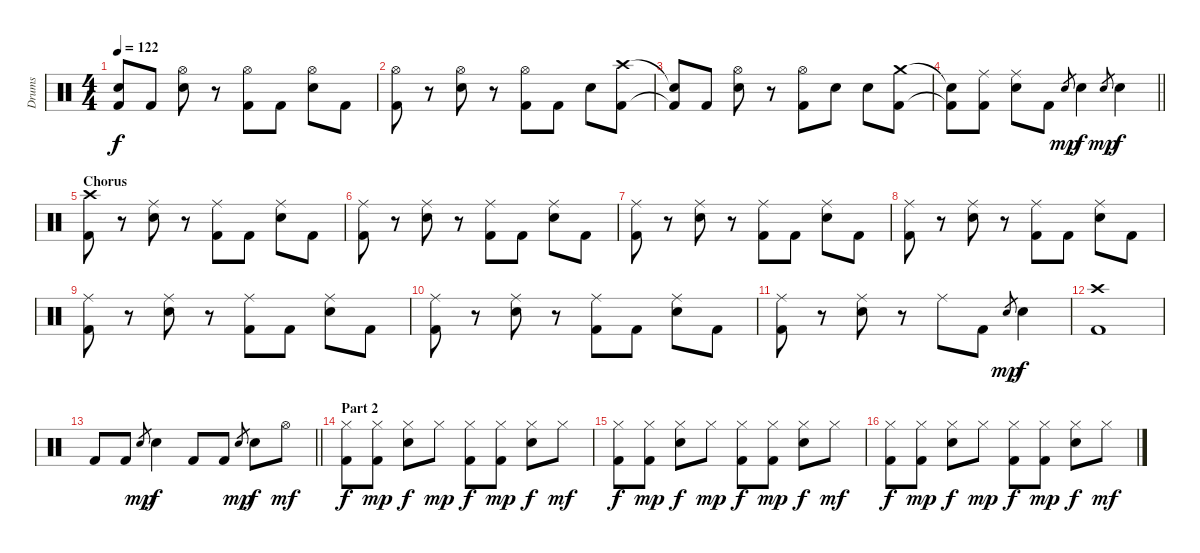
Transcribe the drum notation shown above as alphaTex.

\track ("Drums" "Drums") {instrument percussion}
\staff {score}
\articulation defaults
\ts (4 4)
\tempo 122
\clef neutral
\ks c
("Kick (hit) 2"{t} "Snare (hit)"{t}).8{dy f} "Kick (hit) 2".8 ("Snare (hit) 2" "Hi-Hat (open)").8 r.8 ("Kick (hit) 2" "Hi-Hat (open)").8 "Kick (hit) 2".8 ("Snare (hit) 2" "Hi-Hat (open)").8 "Kick (hit) 2".8 |
("Kick (hit) 2" "Hi-Hat (open)").8 r.8 ("Snare (hit) 2" "Hi-Hat (open)").8 r.8 ("Kick (hit) 2" "Hi-Hat (open)").8 "Kick (hit) 2".8 "Snare (hit) 2".8 ("Kick (hit) 2" "Crash high (hit)").8 |
("Kick (hit) 2"{t} "Snare (hit)"{t}).8 "Kick (hit) 2".8 ("Snare (hit) 2" "Hi-Hat (open)").8 r.8 ("Kick (hit) 2" "Hi-Hat (open)").8 "Snare (hit) 2".8 "Snare (hit) 2".8 ("Kick (hit) 2" "Crash medium (hit)").8 |
\barLineRight lightlight
("Kick (hit) 2"{t} "Snare (hit)"{t}).8 ("Kick (hit) 2" "Ride (middle)").8 ("Snare (hit) 2" "Ride (middle)").8 "Kick (hit) 2".8 "Snare (hit) 2".8{gr dy mp} "Snare (hit) 2".4{dy f} "Snare (hit) 2".8{gr dy mp} "Snare (hit) 2".4{dy f} |
\section ("" "Chorus")
("Kick (hit) 2" "Crash high (hit)").8 r.8 ("Snare (hit) 2" "Ride (middle)").8 r.8 ("Kick (hit) 2" "Ride (middle)").8 "Kick (hit) 2".8 ("Snare (hit) 2" "Ride (middle)").8 "Kick (hit) 2".8 |
("Kick (hit) 2" "Ride (middle)").8 r.8 ("Snare (hit) 2" "Ride (middle)").8 r.8 ("Kick (hit) 2" "Ride (middle)").8 "Kick (hit) 2".8 ("Snare (hit) 2" "Ride (middle)").8 "Kick (hit) 2".8 |
("Kick (hit) 2" "Ride (middle)").8 r.8 ("Snare (hit) 2" "Ride (middle)").8 r.8 ("Kick (hit) 2" "Ride (middle)").8 "Kick (hit) 2".8 ("Snare (hit) 2" "Ride (middle)").8 "Kick (hit) 2".8 |
("Kick (hit) 2" "Ride (middle)").8 r.8 ("Snare (hit) 2" "Ride (middle)").8 r.8 ("Kick (hit) 2" "Ride (middle)").8 "Kick (hit) 2".8 ("Snare (hit) 2" "Ride (middle)").8 "Kick (hit) 2".8 |
("Kick (hit) 2" "Ride (middle)").8 r.8 ("Snare (hit) 2" "Ride (middle)").8 r.8 ("Kick (hit) 2" "Ride (middle)").8 "Kick (hit) 2".8 ("Snare (hit) 2" "Ride (middle)").8 "Kick (hit) 2".8 |
("Kick (hit) 2" "Ride (middle)").8 r.8 ("Snare (hit) 2" "Ride (middle)").8 r.8 ("Kick (hit) 2" "Ride (middle)").8 "Kick (hit) 2".8 ("Snare (hit) 2" "Ride (middle)").8 "Kick (hit) 2".8 |
("Kick (hit) 2" "Ride (middle)").8 r.8 ("Snare (hit) 2" "Ride (middle)").8 r.8 "Ride (middle)".8 "Kick (hit) 2".8 "Snare (hit) 2".8{gr dy mp} "Snare (hit) 2".4{dy f} |
("Kick (hit) 2" "Crash high (hit)").1 |
\barLineRight lightlight "Kick (hit) 2".8 "Kick (hit) 2".8 "Snare (hit) 2".8{gr dy mp} "Snare (hit) 2".4{dy f} "Kick (hit) 2".8 "Kick (hit) 2".8 "Snare (hit) 2".8{gr dy mp} "Snare (hit) 2".8{dy f} "Hi-Hat (open)".8{dy mf}
|
\section ("" "Part 2")
("Kick (hit) 2" "Hi-Hat (closed)").8{dy f} ("Kick (hit) 2" "Hi-Hat (closed)").8{dy mp} ("Snare (hit) 2" "Hi-Hat (closed)").8{dy f} "Hi-Hat (closed)".8{dy mp} ("Kick (hit) 2" "Hi-Hat (closed)").8{dy f} ("Kick (hit) 2" "Hi-Hat (closed)").8{dy mp} ("Snare (hit) 2" "Hi-Hat (closed)").8{dy f} "Hi-Hat (closed)".8{dy mf} |
("Kick (hit) 2" "Hi-Hat (closed)").8{dy f} ("Kick (hit) 2" "Hi-Hat (closed)").8{dy mp} ("Snare (hit) 2" "Hi-Hat (closed)").8{dy f} "Hi-Hat (closed)".8{dy mp} ("Kick (hit) 2" "Hi-Hat (closed)").8{dy f} ("Kick (hit) 2" "Hi-Hat (closed)").8{dy mp} ("Snare (hit) 2" "Hi-Hat (closed)").8{dy f} "Hi-Hat (closed)".8{dy mf} |
("Kick (hit) 2" "Hi-Hat (closed)").8{dy f} ("Kick (hit) 2" "Hi-Hat (closed)").8{dy mp} ("Snare (hit) 2" "Hi-Hat (closed)").8{dy f} "Hi-Hat (closed)".8{dy mp} ("Kick (hit) 2" "Hi-Hat (closed)").8{dy f} ("Kick (hit) 2" "Hi-Hat (closed)").8{dy mp} ("Snare (hit) 2" "Hi-Hat (closed)").8{dy f} "Hi-Hat (closed)".8{dy mf}
